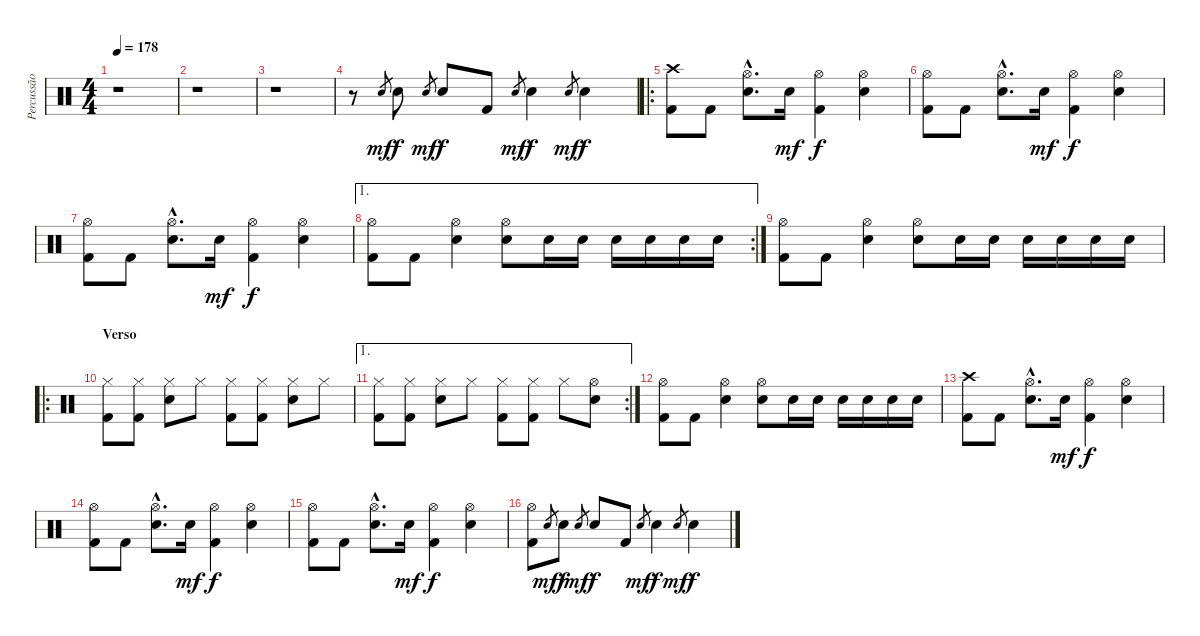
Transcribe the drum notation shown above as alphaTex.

\track ("Percussão" "Percussão") {instrument percussion}
\staff {score}
\articulation defaults
\ts (4 4)
\tempo 178
\clef neutral
\ks c
r.1{dy mf} |
r.1 |
r.1 |
r.8 "Snare (hit) 2".8{gr} "Snare (hit) 2".8{dy f} "Snare (hit) 2".8{gr dy mf} "Snare (hit) 2".8{dy f} "Kick (hit) 2".8 "Snare (hit) 2".8{gr dy mf} "Snare (hit) 2".4{dy f} "Snare (hit) 2".8{gr dy mf} "Snare (hit) 2".4{dy f} |
\ro
("Crash high (hit)" "Kick (hit) 2").8 "Kick (hit) 2".8 ("Hi-Hat (open)"{hac} "Snare (hit) 2"{hac}).8{d} "Snare (hit) 2".16{dy mf} ("Hi-Hat (open)" "Kick (hit) 2").4{dy f} ("Hi-Hat (open)" "Snare (hit) 2").4 |
("Hi-Hat (open)" "Kick (hit) 2").8 "Kick (hit) 2".8 ("Hi-Hat (open)"{hac} "Snare (hit) 2"{hac}).8{d} "Snare (hit) 2".16{dy mf} ("Hi-Hat (open)" "Kick (hit) 2").4{dy f} ("Hi-Hat (open)" "Snare (hit) 2").4 |
("Hi-Hat (open)" "Kick (hit) 2").8 "Kick (hit) 2".8 ("Hi-Hat (open)"{hac} "Snare (hit) 2"{hac}).8{d} "Snare (hit) 2".16{dy mf} ("Hi-Hat (open)" "Kick (hit) 2").4{dy f} ("Hi-Hat (open)" "Snare (hit) 2").4 |
\ae 1
\rc 2
("Hi-Hat (open)" "Kick (hit) 2").8 "Kick (hit) 2".8 ("Hi-Hat (open)" "Snare (hit) 2").4 ("Hi-Hat (open)" "Snare (hit) 2").8 "Snare (hit) 2".16 "Snare (hit) 2".16 "Snare (hit) 2".16 "Snare (hit) 2".16 "Snare (hit) 2".16 "Snare (hit) 2".16 |
("Hi-Hat (open)" "Kick (hit) 2").8 "Kick (hit) 2".8 ("Hi-Hat (open)" "Snare (hit) 2").4 ("Hi-Hat (open)" "Snare (hit) 2").8 "Snare (hit) 2".16 "Snare (hit) 2".16 "Snare (hit) 2".16 "Snare (hit) 2".16 "Snare (hit) 2".16 "Snare (hit) 2".16 |
\ro
\section ("" "Verso")
("Hi-Hat (closed)" "Kick (hit) 2").8 ("Hi-Hat (closed)" "Kick (hit) 2").8 ("Hi-Hat (closed)" "Snare (hit) 2").8 "Hi-Hat (closed)".8 ("Hi-Hat (closed)" "Kick (hit) 2").8 ("Hi-Hat (closed)" "Kick (hit) 2").8 ("Hi-Hat (closed)" "Snare (hit) 2").8 "Hi-Hat (closed)".8 |
\ae 1
\rc 2
("Hi-Hat (closed)" "Kick (hit) 2").8 ("Hi-Hat (closed)" "Kick (hit) 2").8 ("Hi-Hat (closed)" "Snare (hit) 2").8 "Hi-Hat (closed)".8 ("Hi-Hat (closed)" "Kick (hit) 2").8 ("Hi-Hat (closed)" "Kick (hit) 2").8 "Hi-Hat (closed)".8 ("Hi-Hat (open)" "Snare (hit) 2").8 |
("Hi-Hat (open)" "Kick (hit) 2").8 "Kick (hit) 2".8 ("Hi-Hat (open)" "Snare (hit) 2").4 ("Hi-Hat (open)" "Snare (hit) 2").8 "Snare (hit) 2".16 "Snare (hit) 2".16 "Snare (hit) 2".16 "Snare (hit) 2".16 "Snare (hit) 2".16 "Snare (hit) 2".16 |
("Crash high (hit)" "Kick (hit) 2").8 "Kick (hit) 2".8 ("Hi-Hat (open)"{hac} "Snare (hit) 2"{hac}).8{d} "Snare (hit) 2".16{dy mf} ("Hi-Hat (open)" "Kick (hit) 2").4{dy f} ("Hi-Hat (open)" "Snare (hit) 2").4 |
("Hi-Hat (open)" "Kick (hit) 2").8 "Kick (hit) 2".8 ("Hi-Hat (open)"{hac} "Snare (hit) 2"{hac}).8{d} "Snare (hit) 2".16{dy mf} ("Hi-Hat (open)" "Kick (hit) 2").4{dy f} ("Hi-Hat (open)" "Snare (hit) 2").4 |
("Hi-Hat (open)" "Kick (hit) 2").8 "Kick (hit) 2".8 ("Hi-Hat (open)"{hac} "Snare (hit) 2"{hac}).8{d} "Snare (hit) 2".16{dy mf} ("Hi-Hat (open)" "Kick (hit) 2").4{dy f} ("Hi-Hat (open)" "Snare (hit) 2").4 |
("Hi-Hat (open)" "Kick (hit) 2").8 "Snare (hit) 2".8{gr dy mf} "Snare (hit) 2".8{dy f} "Snare (hit) 2".8{gr dy mf} "Snare (hit) 2".8{dy f} "Kick (hit) 2".8 "Snare (hit) 2".8{gr dy mf} "Snare (hit) 2".4{dy f} "Snare (hit) 2".8{gr dy mf} "Snare (hit) 2".4{dy f}
